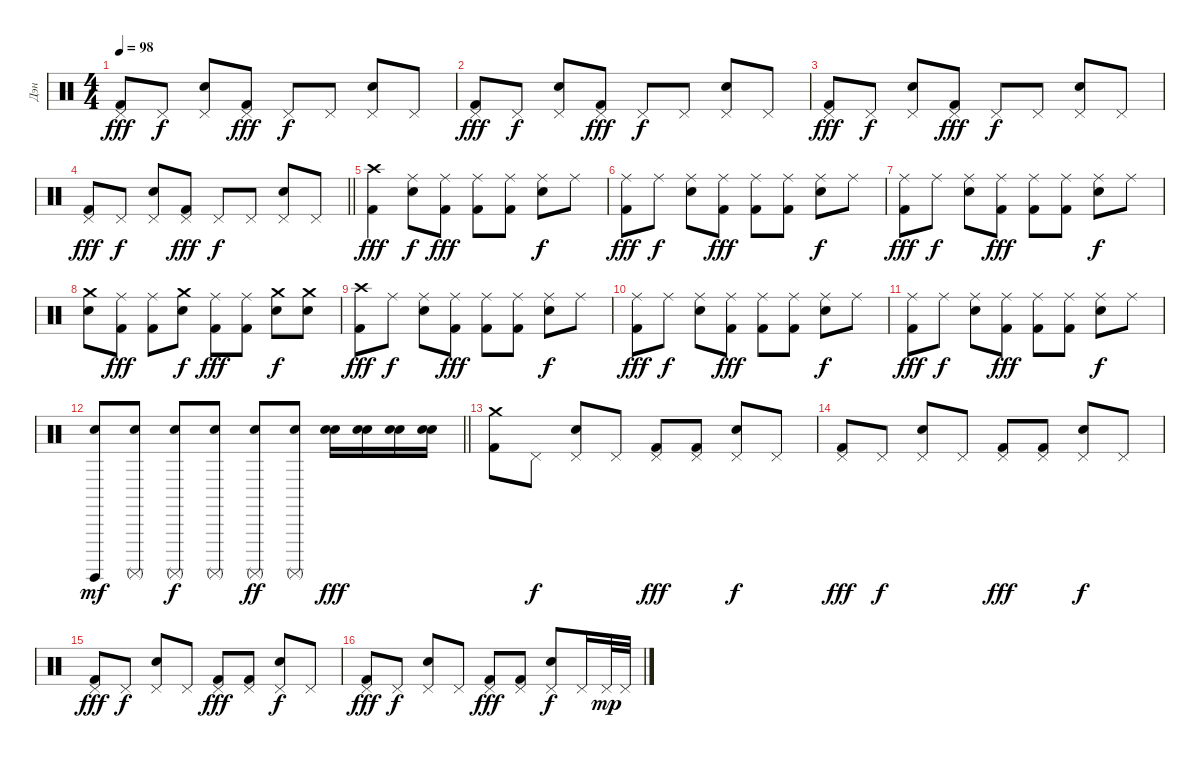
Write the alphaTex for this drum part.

\track ("Дэн" "Дэн") {instrument percussion}
\staff {score}
\articulation defaults
\ts (4 4)
\tempo 98
\clef neutral
\ks c
("Kick (hit) 2" "Pedal Hi-Hat (hit)").8{dy fff} "Pedal Hi-Hat (hit)".8{dy f} ("Electric Snare (hit)" "Pedal Hi-Hat (hit)").8 ("Kick (hit) 2" "Pedal Hi-Hat (hit)").8{dy fff} "Pedal Hi-Hat (hit)".8{dy f} "Pedal Hi-Hat (hit)".8 ("Electric Snare (hit)" "Pedal Hi-Hat (hit)").8 "Pedal Hi-Hat (hit)".8 |
("Kick (hit) 2" "Pedal Hi-Hat (hit)").8{dy fff} "Pedal Hi-Hat (hit)".8{dy f} ("Electric Snare (hit)" "Pedal Hi-Hat (hit)").8 ("Kick (hit) 2" "Pedal Hi-Hat (hit)").8{dy fff} "Pedal Hi-Hat (hit)".8{dy f} "Pedal Hi-Hat (hit)".8 ("Electric Snare (hit)" "Pedal Hi-Hat (hit)").8 "Pedal Hi-Hat (hit)".8 |
("Kick (hit) 2" "Pedal Hi-Hat (hit)").8{dy fff} "Pedal Hi-Hat (hit)".8{dy f} ("Electric Snare (hit)" "Pedal Hi-Hat (hit)").8 ("Kick (hit) 2" "Pedal Hi-Hat (hit)").8{dy fff} "Pedal Hi-Hat (hit)".8{dy f} "Pedal Hi-Hat (hit)".8 ("Electric Snare (hit)" "Pedal Hi-Hat (hit)").8 "Pedal Hi-Hat (hit)".8 |
\barLineRight lightlight
("Kick (hit) 2" "Pedal Hi-Hat (hit)").8{dy fff} "Pedal Hi-Hat (hit)".8{dy f} ("Electric Snare (hit)" "Pedal Hi-Hat (hit)").8 ("Kick (hit) 2" "Pedal Hi-Hat (hit)").8{dy fff} "Pedal Hi-Hat (hit)".8{dy f} "Pedal Hi-Hat (hit)".8 ("Electric Snare (hit)" "Pedal Hi-Hat (hit)").8 "Pedal Hi-Hat (hit)".8 |
("Kick (hit) 2" "Crash high (hit)").4{dy fff} ("Electric Snare (hit)" "Ride (middle)").8{dy f} ("Kick (hit) 2" "Ride (middle)").8{dy fff} ("Kick (hit) 2" "Ride (middle)").8 ("Kick (hit) 2" "Ride (middle)").8 ("Electric Snare (hit)" "Ride (middle)").8{dy f} "Ride (middle)".8 |
("Kick (hit) 2" "Ride (middle)").8{dy fff} "Ride (middle)".8{dy f} ("Electric Snare (hit)" "Ride (middle)").8 ("Kick (hit) 2" "Ride (middle)").8{dy fff} ("Kick (hit) 2" "Ride (middle)").8 ("Kick (hit) 2" "Ride (middle)").8 ("Electric Snare (hit)" "Ride (middle)").8{dy f} "Ride (middle)".8 |
("Kick (hit) 2" "Ride (middle)").8{dy fff} "Ride (middle)".8{dy f} ("Electric Snare (hit)" "Ride (middle)").8 ("Kick (hit) 2" "Ride (middle)").8{dy fff} ("Kick (hit) 2" "Ride (middle)").8 ("Kick (hit) 2" "Ride (middle)").8 ("Electric Snare (hit)" "Ride (middle)").8{dy f} "Ride (middle)".8 |
("Electric Snare (hit)" "Crash medium (hit)").8 ("Kick (hit) 2" "Ride (middle)").8{dy fff} ("Kick (hit) 2" "Ride (middle)").8 ("Electric Snare (hit)" "Crash medium (hit)").8{dy f} ("Kick (hit) 2" "Ride (middle)").8{dy fff} ("Kick (hit) 2" "Ride (middle)").8 ("Electric Snare (hit)" "Crash medium (hit)").8{dy f} ("Electric Snare (hit)" "Crash medium (hit)").8 |
("Kick (hit) 2" "Crash high (hit)").8{dy fff} "Ride (middle)".8{dy f} ("Electric Snare (hit)" "Ride (middle)").8 ("Kick (hit) 2" "Ride (middle)").8{dy fff} ("Kick (hit) 2" "Ride (middle)").8 ("Kick (hit) 2" "Ride (middle)").8 ("Electric Snare (hit)" "Ride (middle)").8{dy f} "Ride (middle)".8 |
("Kick (hit) 2" "Ride (middle)").8{dy fff} "Ride (middle)".8{dy f} ("Electric Snare (hit)" "Ride (middle)").8 ("Kick (hit) 2" "Ride (middle)").8{dy fff} ("Kick (hit) 2" "Ride (middle)").8 ("Kick (hit) 2" "Ride (middle)").8 ("Electric Snare (hit)" "Ride (middle)").8{dy f} "Ride (middle)".8 |
("Kick (hit) 2" "Ride (middle)").8{dy fff} "Ride (middle)".8{dy f} ("Electric Snare (hit)" "Ride (middle)").8 ("Kick (hit) 2" "Ride (middle)").8{dy fff} ("Kick (hit) 2" "Ride (middle)").8 ("Kick (hit) 2" "Ride (middle)").8 ("Electric Snare (hit)" "Ride (middle)").8{dy f} "Ride (middle)".8 |
\barLineRight lightlight
("Electric Snare (hit)" "Surdo (hit)").8{dy mf} ("Electric Snare (hit)" "Surdo (mute)").8 ("Electric Snare (hit)" "Surdo (mute)").8{dy f} ("Electric Snare (hit)" "Surdo (mute)").8 ("Electric Snare (hit)" "Surdo (mute)").8{dy ff} ("Electric Snare (hit)" "Surdo (mute)").8 ("Electric Snare (hit)" "Hand Clap (hit)").16{dy fff} ("Electric Snare (hit)" "Hand Clap (hit)").16 ("Electric Snare (hit)" "Hand Clap (hit)").16 ("Electric Snare (hit)" "Hand Clap (hit)").16 |
("Kick (hit) 2" "Crash medium (hit)").8 "Pedal Hi-Hat (hit)".8{dy f} ("Electric Snare (hit)" "Pedal Hi-Hat (hit)").8 "Pedal Hi-Hat (hit)".8 ("Kick (hit) 2" "Pedal Hi-Hat (hit)").8{dy fff} ("Kick (hit) 2" "Pedal Hi-Hat (hit)").8 ("Electric Snare (hit)" "Pedal Hi-Hat (hit)").8{dy f} "Pedal Hi-Hat (hit)".8 |
("Kick (hit) 2" "Pedal Hi-Hat (hit)").8{dy fff} "Pedal Hi-Hat (hit)".8{dy f} ("Electric Snare (hit)" "Pedal Hi-Hat (hit)").8 "Pedal Hi-Hat (hit)".8 ("Kick (hit) 2" "Pedal Hi-Hat (hit)").8{dy fff} ("Kick (hit) 2" "Pedal Hi-Hat (hit)").8 ("Electric Snare (hit)" "Pedal Hi-Hat (hit)").8{dy f} "Pedal Hi-Hat (hit)".8 |
("Kick (hit) 2" "Pedal Hi-Hat (hit)").8{dy fff} "Pedal Hi-Hat (hit)".8{dy f} ("Electric Snare (hit)" "Pedal Hi-Hat (hit)").8 "Pedal Hi-Hat (hit)".8 ("Kick (hit) 2" "Pedal Hi-Hat (hit)").8{dy fff} ("Kick (hit) 2" "Pedal Hi-Hat (hit)").8 ("Electric Snare (hit)" "Pedal Hi-Hat (hit)").8{dy f} "Pedal Hi-Hat (hit)".8 |
("Kick (hit) 2" "Pedal Hi-Hat (hit)").8{dy fff} "Pedal Hi-Hat (hit)".8{dy f} ("Electric Snare (hit)" "Pedal Hi-Hat (hit)").8 "Pedal Hi-Hat (hit)".8 ("Kick (hit) 2" "Pedal Hi-Hat (hit)").8{dy fff} ("Kick (hit) 2" "Pedal Hi-Hat (hit)").8 ("Electric Snare (hit)" "Pedal Hi-Hat (hit)").8{dy f} "Pedal Hi-Hat (hit)".16 "Pedal Hi-Hat (hit)".32{dy mp} "Pedal Hi-Hat (hit)".32
